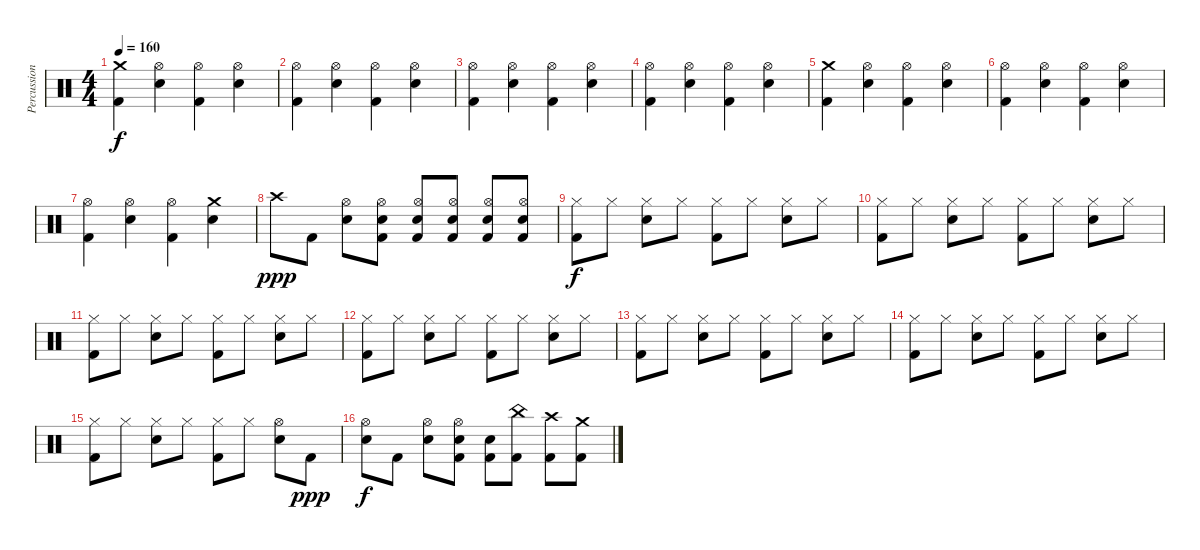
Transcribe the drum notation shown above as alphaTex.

\track ("Percussion" "Percussion") {instrument percussion}
\staff {score}
\articulation defaults
\ts (4 4)
\tempo 160
\clef neutral
\ks c
("Crash medium (hit)" "Kick (hit) 2").4{dy f} ("Hi-Hat (open)" "Electric Snare (hit)").4 ("Hi-Hat (open)" "Kick (hit) 2").4 ("Hi-Hat (open)" "Electric Snare (hit)").4 |
("Hi-Hat (open)" "Kick (hit) 2").4 ("Hi-Hat (open)" "Electric Snare (hit)").4 ("Hi-Hat (open)" "Kick (hit) 2").4 ("Hi-Hat (open)" "Electric Snare (hit)").4 |
("Hi-Hat (open)" "Kick (hit) 2").4 ("Hi-Hat (open)" "Electric Snare (hit)").4 ("Hi-Hat (open)" "Kick (hit) 2").4 ("Hi-Hat (open)" "Electric Snare (hit)").4 |
("Hi-Hat (open)" "Kick (hit) 2").4 ("Hi-Hat (open)" "Electric Snare (hit)").4 ("Hi-Hat (open)" "Kick (hit) 2").4 ("Hi-Hat (open)" "Electric Snare (hit)").4 |
("Crash medium (hit)" "Kick (hit) 2").4 ("Hi-Hat (open)" "Electric Snare (hit)").4 ("Hi-Hat (open)" "Kick (hit) 2").4 ("Hi-Hat (open)" "Electric Snare (hit)").4 |
("Hi-Hat (open)" "Kick (hit) 2").4 ("Hi-Hat (open)" "Electric Snare (hit)").4 ("Hi-Hat (open)" "Kick (hit) 2").4 ("Hi-Hat (open)" "Electric Snare (hit)").4 |
("Hi-Hat (open)" "Kick (hit) 2").4 ("Hi-Hat (open)" "Electric Snare (hit)").4 ("Hi-Hat (open)" "Kick (hit) 2").4 ("Crash medium (hit)" "Electric Snare (hit)").4 |
"Crash high (hit)".8{dy ppp} "Kick (hit) 2".8 ("Hi-Hat (open)" "Electric Snare (hit)").8 ("Hi-Hat (open)" "Electric Snare (hit)" "Kick (hit) 2").8 ("Hi-Hat (open)" "Electric Snare (hit)" "Kick (hit) 2").8 ("Hi-Hat (open)" "Electric Snare (hit)" "Kick (hit) 2").8 ("Hi-Hat (open)" "Electric Snare (hit)" "Kick (hit) 2").8 ("Hi-Hat (open)" "Electric Snare (hit)" "Kick (hit) 2").8 |
("Hi-Hat (closed)" "Kick (hit) 2").8{dy f} "Hi-Hat (closed)".8 ("Hi-Hat (closed)" "Electric Snare (hit)").8 "Hi-Hat (closed)".8 ("Hi-Hat (closed)" "Kick (hit) 2").8 "Hi-Hat (closed)".8 ("Hi-Hat (closed)" "Electric Snare (hit)").8 "Hi-Hat (closed)".8 |
("Hi-Hat (closed)" "Kick (hit) 2").8 "Hi-Hat (closed)".8 ("Hi-Hat (closed)" "Electric Snare (hit)").8 "Hi-Hat (closed)".8 ("Hi-Hat (closed)" "Kick (hit) 2").8 "Hi-Hat (closed)".8 ("Hi-Hat (closed)" "Electric Snare (hit)").8 "Hi-Hat (closed)".8 |
("Hi-Hat (closed)" "Kick (hit) 2").8 "Hi-Hat (closed)".8 ("Hi-Hat (closed)" "Electric Snare (hit)").8 "Hi-Hat (closed)".8 ("Hi-Hat (closed)" "Kick (hit) 2").8 "Hi-Hat (closed)".8 ("Hi-Hat (closed)" "Electric Snare (hit)").8 "Hi-Hat (closed)".8 |
("Hi-Hat (closed)" "Kick (hit) 2").8 "Hi-Hat (closed)".8 ("Hi-Hat (closed)" "Electric Snare (hit)").8 "Hi-Hat (closed)".8 ("Hi-Hat (closed)" "Kick (hit) 2").8 "Hi-Hat (closed)".8 ("Hi-Hat (closed)" "Electric Snare (hit)").8 "Hi-Hat (closed)".8 |
("Hi-Hat (closed)" "Kick (hit) 2").8 "Hi-Hat (closed)".8 ("Hi-Hat (closed)" "Electric Snare (hit)").8 "Hi-Hat (closed)".8 ("Hi-Hat (closed)" "Kick (hit) 2").8 "Hi-Hat (closed)".8 ("Hi-Hat (closed)" "Electric Snare (hit)").8 "Hi-Hat (closed)".8 |
("Hi-Hat (closed)" "Kick (hit) 2").8 "Hi-Hat (closed)".8 ("Hi-Hat (closed)" "Electric Snare (hit)").8 "Hi-Hat (closed)".8 ("Hi-Hat (closed)" "Kick (hit) 2").8 "Hi-Hat (closed)".8 ("Hi-Hat (closed)" "Electric Snare (hit)").8 "Hi-Hat (closed)".8 |
("Hi-Hat (closed)" "Kick (hit) 2").8 "Hi-Hat (closed)".8 ("Hi-Hat (closed)" "Electric Snare (hit)").8 "Hi-Hat (closed)".8 ("Hi-Hat (closed)" "Kick (hit) 2").8 "Hi-Hat (closed)".8 ("Hi-Hat (open)" "Electric Snare (hit)").8 "Kick (hit) 2".8{dy ppp} |
("Hi-Hat (open)" "Electric Snare (hit)").8{dy f} "Kick (hit) 2".8 ("Hi-Hat (open)" "Electric Snare (hit)").8 ("Hi-Hat (open)" "Electric Snare (hit)" "Kick (hit) 2").8 ("Electric Snare (hit)" "Kick (hit) 2").8 ("China (hit)" "Kick (hit) 2").8 ("Crash high (hit)" "Kick (hit) 2").8 ("Crash medium (hit)" "Kick (hit) 2").8
